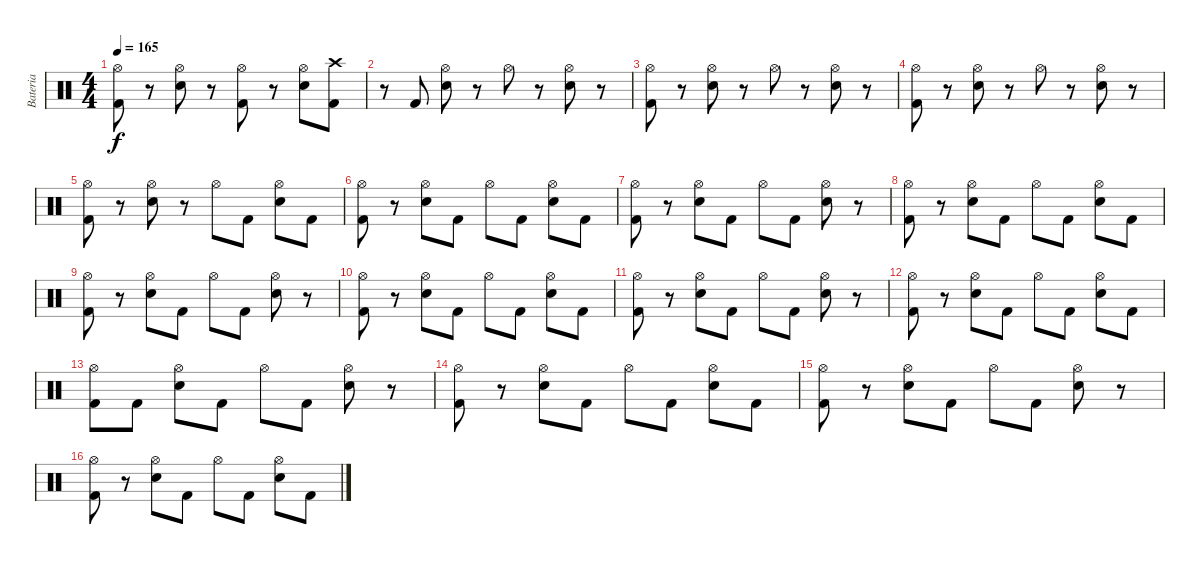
\track ("Bateria" "Bateria") {instrument percussion}
\staff {score}
\articulation defaults
\ts (4 4)
\tempo 165
\clef neutral
\ks c
("Hi-Hat (open)" "Kick (hit) 2").8{dy f} r.8 ("Hi-Hat (open)" "Snare (hit) 2").8 r.8 ("Hi-Hat (open)" "Kick (hit) 2").8 r.8 ("Hi-Hat (open)" "Snare (hit) 2").8 ("Crash high (hit)" "Kick (hit) 2").8 |
r.8 "Kick (hit) 2".8 ("Hi-Hat (open)" "Snare (hit) 2").8 r.8 "Hi-Hat (open)".8 r.8 ("Hi-Hat (open)" "Snare (hit) 2").8 r.8 |
("Hi-Hat (open)" "Kick (hit) 2").8 r.8 ("Hi-Hat (open)" "Snare (hit) 2").8 r.8 "Hi-Hat (open)".8 r.8 ("Hi-Hat (open)" "Snare (hit) 2").8 r.8 |
("Hi-Hat (open)" "Kick (hit) 2").8 r.8 ("Hi-Hat (open)" "Snare (hit) 2").8 r.8 "Hi-Hat (open)".8 r.8 ("Hi-Hat (open)" "Snare (hit) 2").8 r.8 |
("Hi-Hat (open)" "Kick (hit) 2").8 r.8 ("Hi-Hat (open)" "Snare (hit) 2").8 r.8 "Hi-Hat (open)".8 "Kick (hit) 2".8 ("Hi-Hat (open)" "Snare (hit) 2").8 "Kick (hit) 2".8 |
("Hi-Hat (open)" "Kick (hit) 2").8 r.8 ("Hi-Hat (open)" "Snare (hit) 2").8 "Kick (hit) 2".8 "Hi-Hat (open)".8 "Kick (hit) 2".8 ("Hi-Hat (open)" "Snare (hit) 2").8 "Kick (hit) 2".8 |
("Hi-Hat (open)" "Kick (hit) 2").8 r.8 ("Hi-Hat (open)" "Snare (hit) 2").8 "Kick (hit) 2".8 "Hi-Hat (open)".8 "Kick (hit) 2".8 ("Hi-Hat (open)" "Snare (hit) 2").8 r.8 |
("Hi-Hat (open)" "Kick (hit) 2").8 r.8 ("Hi-Hat (open)" "Snare (hit) 2").8 "Kick (hit) 2".8 "Hi-Hat (open)".8 "Kick (hit) 2".8 ("Hi-Hat (open)" "Snare (hit) 2").8 "Kick (hit) 2".8 |
("Hi-Hat (open)" "Kick (hit) 2").8 r.8 ("Hi-Hat (open)" "Snare (hit) 2").8 "Kick (hit) 2".8 "Hi-Hat (open)".8 "Kick (hit) 2".8 ("Hi-Hat (open)" "Snare (hit) 2").8 r.8 |
("Hi-Hat (open)" "Kick (hit) 2").8 r.8 ("Hi-Hat (open)" "Snare (hit) 2").8 "Kick (hit) 2".8 "Hi-Hat (open)".8 "Kick (hit) 2".8 ("Hi-Hat (open)" "Snare (hit) 2").8 "Kick (hit) 2".8 |
("Hi-Hat (open)" "Kick (hit) 2").8 r.8 ("Hi-Hat (open)" "Snare (hit) 2").8 "Kick (hit) 2".8 "Hi-Hat (open)".8 "Kick (hit) 2".8 ("Hi-Hat (open)" "Snare (hit) 2").8 r.8 |
("Hi-Hat (open)" "Kick (hit) 2").8 r.8 ("Hi-Hat (open)" "Snare (hit) 2").8 "Kick (hit) 2".8 "Hi-Hat (open)".8 "Kick (hit) 2".8 ("Hi-Hat (open)" "Snare (hit) 2").8 "Kick (hit) 2".8 |
("Hi-Hat (open)" "Kick (hit) 2").8 "Kick (hit) 2".8 ("Hi-Hat (open)" "Snare (hit) 2").8 "Kick (hit) 2".8 "Hi-Hat (open)".8 "Kick (hit) 2".8 ("Hi-Hat (open)" "Snare (hit) 2").8 r.8 |
("Hi-Hat (open)" "Kick (hit) 2").8 r.8 ("Hi-Hat (open)" "Snare (hit) 2").8 "Kick (hit) 2".8 "Hi-Hat (open)".8 "Kick (hit) 2".8 ("Hi-Hat (open)" "Snare (hit) 2").8 "Kick (hit) 2".8 |
("Hi-Hat (open)" "Kick (hit) 2").8 r.8 ("Hi-Hat (open)" "Snare (hit) 2").8 "Kick (hit) 2".8 "Hi-Hat (open)".8 "Kick (hit) 2".8 ("Hi-Hat (open)" "Snare (hit) 2").8 r.8 |
("Hi-Hat (open)" "Kick (hit) 2").8 r.8 ("Hi-Hat (open)" "Snare (hit) 2").8 "Kick (hit) 2".8 "Hi-Hat (open)".8 "Kick (hit) 2".8 ("Hi-Hat (open)" "Snare (hit) 2").8 "Kick (hit) 2".8
